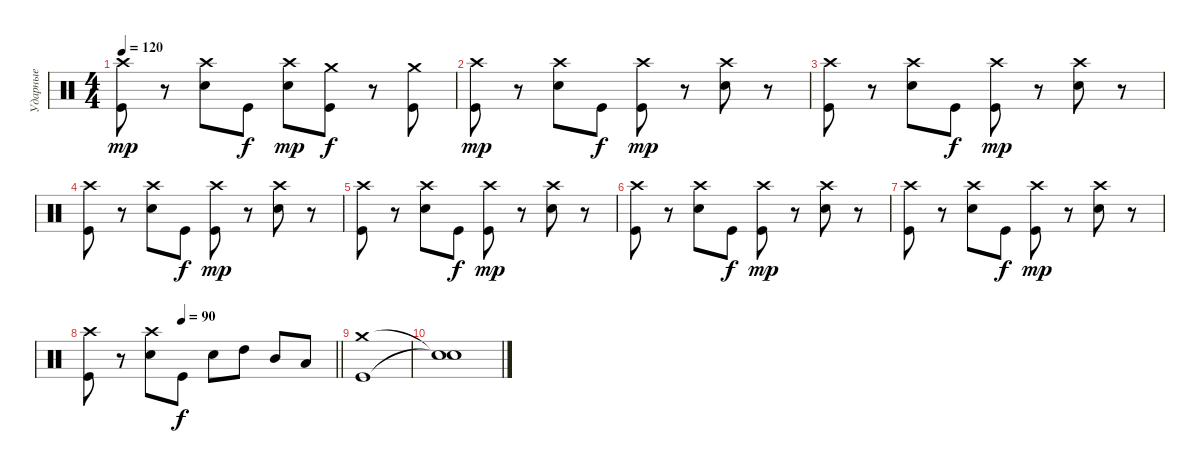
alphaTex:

\track ("Ударные" "Ударные") {instrument percussion}
\staff {score}
\articulation defaults
\ts (4 4)
\tempo 120
\clef neutral
\ks c
("Crash high (hit)" "Kick (hit)").8{dy mp} r.8 ("Crash high (hit)" "Electric Snare (hit)").8 "Kick (hit)".8{dy f} ("Crash high (hit)" "Electric Snare (hit)").8{dy mp} ("Crash medium (hit)" "Kick (hit)").8{dy f} r.8 ("Crash medium (hit)" "Kick (hit)").8 |
("Crash high (hit)" "Kick (hit)").8{dy mp} r.8 ("Crash high (hit)" "Electric Snare (hit)").8 "Kick (hit)".8{dy f} ("Crash high (hit)" "Kick (hit)").8{dy mp} r.8 ("Crash high (hit)" "Electric Snare (hit)").8 r.8 |
("Crash high (hit)" "Kick (hit)").8 r.8 ("Crash high (hit)" "Electric Snare (hit)").8 "Kick (hit)".8{dy f} ("Crash high (hit)" "Kick (hit)").8{dy mp} r.8 ("Crash high (hit)" "Electric Snare (hit)").8 r.8 |
("Crash high (hit)" "Kick (hit)").8 r.8 ("Crash high (hit)" "Electric Snare (hit)").8 "Kick (hit)".8{dy f} ("Crash high (hit)" "Kick (hit)").8{dy mp} r.8 ("Crash high (hit)" "Electric Snare (hit)").8 r.8 |
("Crash high (hit)" "Kick (hit)").8 r.8 ("Crash high (hit)" "Electric Snare (hit)").8 "Kick (hit)".8{dy f} ("Crash high (hit)" "Kick (hit)").8{dy mp} r.8 ("Crash high (hit)" "Electric Snare (hit)").8 r.8 |
("Crash high (hit)" "Kick (hit)").8 r.8 ("Crash high (hit)" "Electric Snare (hit)").8 "Kick (hit)".8{dy f} ("Crash high (hit)" "Kick (hit)").8{dy mp} r.8 ("Crash high (hit)" "Electric Snare (hit)").8 r.8 |
("Crash high (hit)" "Kick (hit)").8 r.8 ("Crash high (hit)" "Electric Snare (hit)").8 "Kick (hit)".8{dy f} ("Crash high (hit)" "Kick (hit)").8{dy mp} r.8 ("Crash high (hit)" "Electric Snare (hit)").8 r.8 |
\tempo (90 0.375)
\barLineRight lightlight
("Crash high (hit)" "Kick (hit)").8 r.8 ("Crash high (hit)" "Electric Snare (hit)").8 "Kick (hit)".8{dy f} "Electric Snare (hit)".8 "High Tom (hit)".8 "Mid Tom (hit)".8 "Low Tom (hit)".8 |
("Crash medium (hit)" "Kick (hit)").1 |
("Snare (hit)"{t} "Snare (hit)"{t}).1
